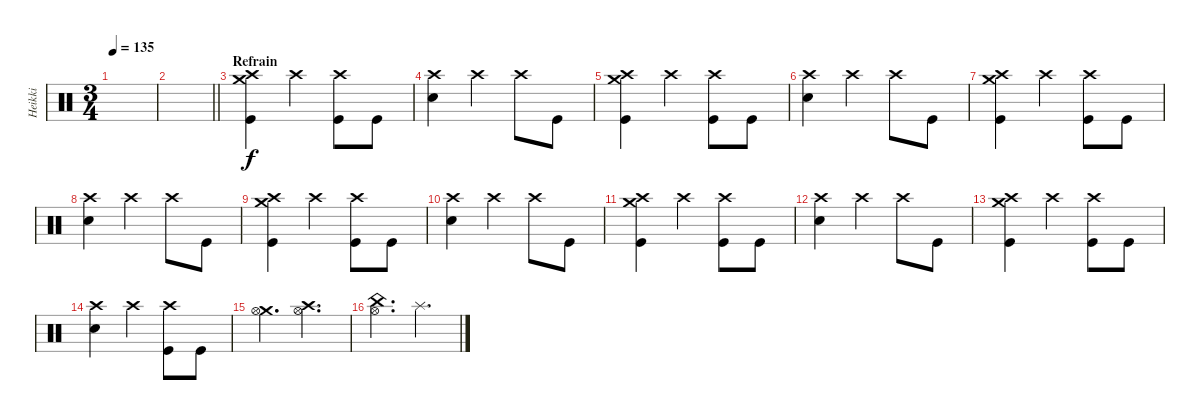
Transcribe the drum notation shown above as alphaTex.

\track ("Heikki" "Heikki") {instrument percussion}
\staff {score}
\articulation defaults
\ts (3 4)
\tempo 135
\clef neutral
\ks c
|
\barLineRight lightlight
|
\section ("" "Refrain")
("Crash high (hit)" "Crash medium (hit)" "Kick (hit)").4 "Crash high (hit)".4 ("Crash high (hit)" "Kick (hit)").8 "Kick (hit)".8 |
("Crash high (hit)" "Snare (hit) 2").4 "Crash high (hit)".4 "Crash high (hit)".8 "Kick (hit)".8 |
("Crash high (hit)" "Crash medium (hit)" "Kick (hit)").4 "Crash high (hit)".4 ("Crash high (hit)" "Kick (hit)").8 "Kick (hit)".8 |
("Crash high (hit)" "Snare (hit) 2").4 "Crash high (hit)".4 "Crash high (hit)".8 "Kick (hit)".8 |
("Crash high (hit)" "Crash medium (hit)" "Kick (hit)").4 "Crash high (hit)".4 ("Crash high (hit)" "Kick (hit)").8 "Kick (hit)".8 |
("Crash high (hit)" "Snare (hit) 2").4 "Crash high (hit)".4 "Crash high (hit)".8 "Kick (hit)".8 |
("Crash high (hit)" "Crash medium (hit)" "Kick (hit)").4 "Crash high (hit)".4 ("Crash high (hit)" "Kick (hit)").8 "Kick (hit)".8 |
("Crash high (hit)" "Snare (hit) 2").4 "Crash high (hit)".4 "Crash high (hit)".8 "Kick (hit)".8 |
("Crash high (hit)" "Crash medium (hit)" "Kick (hit)").4 "Crash high (hit)".4 ("Crash high (hit)" "Kick (hit)").8 "Kick (hit)".8 |
("Crash high (hit)" "Snare (hit) 2").4 "Crash high (hit)".4 "Crash high (hit)".8 "Kick (hit)".8 |
("Crash high (hit)" "Crash medium (hit)" "Kick (hit)").4 "Crash high (hit)".4 ("Crash high (hit)" "Kick (hit)").8 "Kick (hit)".8 |
("Crash high (hit)" "Snare (hit) 2").4 "Crash high (hit)".4 ("Crash high (hit)" "Kick (hit)").8 "Kick (hit)".8 |
("Crash medium (hit)" "Hi-Hat (open)").4{d} ("Crash high (hit)" "Hi-Hat (open)").4{d} |
("China (hit)" "Hi-Hat (open)").4{d} "Splash (hit)".4{d}
